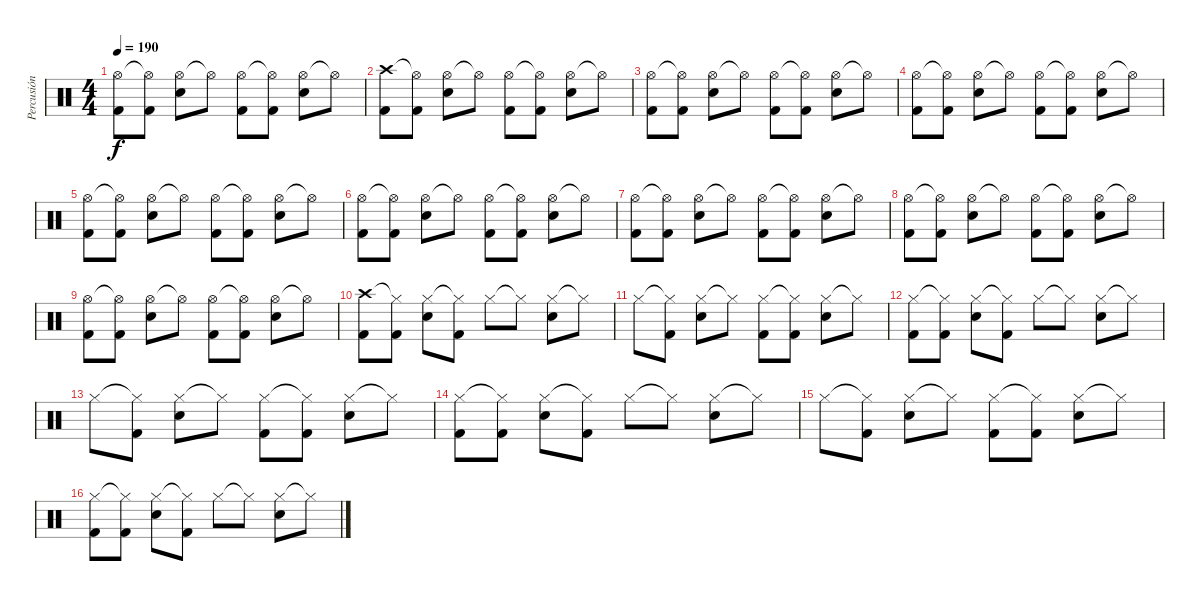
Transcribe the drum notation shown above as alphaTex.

\track ("Percusión" "Percusión") {instrument percussion}
\staff {score}
\articulation defaults
\ts (4 4)
\tempo 190
\clef neutral
\ks c
("Hi-Hat (open)" "Kick (hit) 2").8{dy f} ("Hi-Hat (open)"{t} "Kick (hit) 2").8 ("Hi-Hat (open)" "Snare (hit) 2").8 "Hi-Hat (open)"{t}.8 ("Hi-Hat (open)" "Kick (hit) 2").8 ("Hi-Hat (open)"{t} "Kick (hit) 2").8 ("Hi-Hat (open)" "Snare (hit) 2").8 "Hi-Hat (open)"{t}.8 |
("Crash high (hit)" "Kick (hit) 2").8 ("Hi-Hat (open)"{t} "Kick (hit) 2").8 ("Hi-Hat (open)" "Snare (hit) 2").8 "Hi-Hat (open)"{t}.8 ("Hi-Hat (open)" "Kick (hit) 2").8 ("Hi-Hat (open)"{t} "Kick (hit) 2").8 ("Hi-Hat (open)" "Snare (hit) 2").8 "Hi-Hat (open)"{t}.8 |
("Hi-Hat (open)" "Kick (hit) 2").8 ("Hi-Hat (open)"{t} "Kick (hit) 2").8 ("Hi-Hat (open)" "Snare (hit) 2").8 "Hi-Hat (open)"{t}.8 ("Hi-Hat (open)" "Kick (hit) 2").8 ("Hi-Hat (open)"{t} "Kick (hit) 2").8 ("Hi-Hat (open)" "Snare (hit) 2").8 "Hi-Hat (open)"{t}.8 |
("Hi-Hat (open)" "Kick (hit) 2").8 ("Hi-Hat (open)"{t} "Kick (hit) 2").8 ("Hi-Hat (open)" "Snare (hit) 2").8 "Hi-Hat (open)"{t}.8 ("Hi-Hat (open)" "Kick (hit) 2").8 ("Hi-Hat (open)"{t} "Kick (hit) 2").8 ("Hi-Hat (open)" "Snare (hit) 2").8 "Hi-Hat (open)"{t}.8 |
("Hi-Hat (open)" "Kick (hit) 2").8 ("Hi-Hat (open)"{t} "Kick (hit) 2").8 ("Hi-Hat (open)" "Snare (hit) 2").8 "Hi-Hat (open)"{t}.8 ("Hi-Hat (open)" "Kick (hit) 2").8 ("Hi-Hat (open)"{t} "Kick (hit) 2").8 ("Hi-Hat (open)" "Snare (hit) 2").8 "Hi-Hat (open)"{t}.8 |
("Hi-Hat (open)" "Kick (hit) 2").8 ("Hi-Hat (open)"{t} "Kick (hit) 2").8 ("Hi-Hat (open)" "Snare (hit) 2").8 "Hi-Hat (open)"{t}.8 ("Hi-Hat (open)" "Kick (hit) 2").8 ("Hi-Hat (open)"{t} "Kick (hit) 2").8 ("Hi-Hat (open)" "Snare (hit) 2").8 "Hi-Hat (open)"{t}.8 |
("Hi-Hat (open)" "Kick (hit) 2").8 ("Hi-Hat (open)"{t} "Kick (hit) 2").8 ("Hi-Hat (open)" "Snare (hit) 2").8 "Hi-Hat (open)"{t}.8 ("Hi-Hat (open)" "Kick (hit) 2").8 ("Hi-Hat (open)"{t} "Kick (hit) 2").8 ("Hi-Hat (open)" "Snare (hit) 2").8 "Hi-Hat (open)"{t}.8 |
("Hi-Hat (open)" "Kick (hit) 2").8 ("Hi-Hat (open)"{t} "Kick (hit) 2").8 ("Hi-Hat (open)" "Snare (hit) 2").8 "Hi-Hat (open)"{t}.8 ("Hi-Hat (open)" "Kick (hit) 2").8 ("Hi-Hat (open)"{t} "Kick (hit) 2").8 ("Hi-Hat (open)" "Snare (hit) 2").8 "Hi-Hat (open)"{t}.8 |
("Hi-Hat (open)" "Kick (hit) 2").8 ("Hi-Hat (open)"{t} "Kick (hit) 2").8 ("Hi-Hat (open)" "Snare (hit) 2").8 "Hi-Hat (open)"{t}.8 ("Hi-Hat (open)" "Kick (hit) 2").8 ("Hi-Hat (open)"{t} "Kick (hit) 2").8 ("Hi-Hat (open)" "Snare (hit) 2").8 "Hi-Hat (open)"{t}.8 |
("Crash high (hit)" "Kick (hit) 2").8 ("Hi-Hat (closed)"{t} "Kick (hit) 2").8 ("Hi-Hat (closed)" "Snare (hit) 2").8 ("Hi-Hat (closed)"{t} "Kick (hit) 2").8 "Hi-Hat (closed)".8 "Hi-Hat (closed)"{t}.8 ("Hi-Hat (closed)" "Snare (hit) 2").8 "Hi-Hat (closed)"{t}.8 |
"Hi-Hat (closed)".8 ("Hi-Hat (closed)"{t} "Kick (hit) 2").8 ("Hi-Hat (closed)" "Snare (hit) 2").8 "Hi-Hat (closed)"{t}.8 ("Hi-Hat (closed)" "Kick (hit) 2").8 ("Hi-Hat (closed)"{t} "Kick (hit) 2").8 ("Hi-Hat (closed)" "Snare (hit) 2").8 "Hi-Hat (closed)"{t}.8 |
("Hi-Hat (closed)" "Kick (hit) 2").8 ("Hi-Hat (closed)"{t} "Kick (hit) 2").8 ("Hi-Hat (closed)" "Snare (hit) 2").8 ("Hi-Hat (closed)"{t} "Kick (hit) 2").8 "Hi-Hat (closed)".8 "Hi-Hat (closed)"{t}.8 ("Hi-Hat (closed)" "Snare (hit) 2").8 "Hi-Hat (closed)"{t}.8 |
"Hi-Hat (closed)".8 ("Hi-Hat (closed)"{t} "Kick (hit) 2").8 ("Hi-Hat (closed)" "Snare (hit) 2").8 "Hi-Hat (closed)"{t}.8 ("Hi-Hat (closed)" "Kick (hit) 2").8 ("Hi-Hat (closed)"{t} "Kick (hit) 2").8 ("Hi-Hat (closed)" "Snare (hit) 2").8 "Hi-Hat (closed)"{t}.8 |
("Hi-Hat (closed)" "Kick (hit) 2").8 ("Hi-Hat (closed)"{t} "Kick (hit) 2").8 ("Hi-Hat (closed)" "Snare (hit) 2").8 ("Hi-Hat (closed)"{t} "Kick (hit) 2").8 "Hi-Hat (closed)".8 "Hi-Hat (closed)"{t}.8 ("Hi-Hat (closed)" "Snare (hit) 2").8 "Hi-Hat (closed)"{t}.8 |
"Hi-Hat (closed)".8 ("Hi-Hat (closed)"{t} "Kick (hit) 2").8 ("Hi-Hat (closed)" "Snare (hit) 2").8 "Hi-Hat (closed)"{t}.8 ("Hi-Hat (closed)" "Kick (hit) 2").8 ("Hi-Hat (closed)"{t} "Kick (hit) 2").8 ("Hi-Hat (closed)" "Snare (hit) 2").8 "Hi-Hat (closed)"{t}.8 |
("Hi-Hat (closed)" "Kick (hit) 2").8 ("Hi-Hat (closed)"{t} "Kick (hit) 2").8 ("Hi-Hat (closed)" "Snare (hit) 2").8 ("Hi-Hat (closed)"{t} "Kick (hit) 2").8 "Hi-Hat (closed)".8 "Hi-Hat (closed)"{t}.8 ("Hi-Hat (closed)" "Snare (hit) 2").8 "Hi-Hat (closed)"{t}.8
